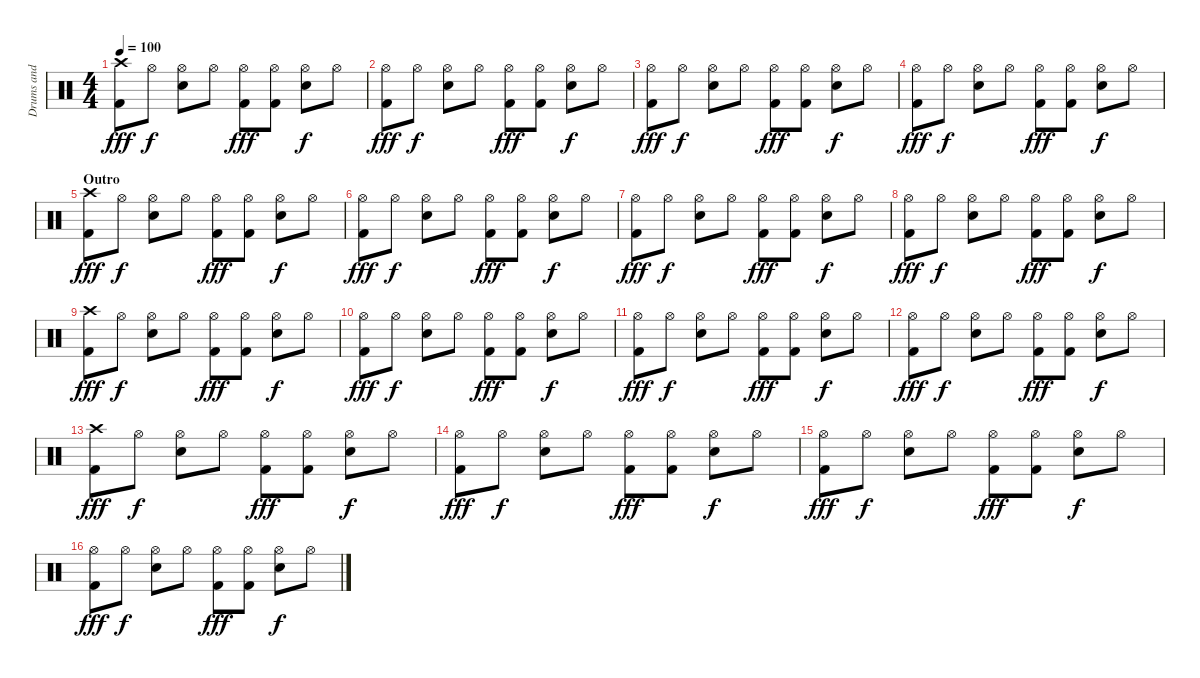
\track ("Drums and Percussion" "Drums and ") {instrument percussion}
\staff {score}
\articulation defaults
\ts (4 4)
\tempo 100
\clef neutral
\ks c
("Crash high (hit)" "Kick (hit) 2").8{dy fff} "Hi-Hat (open)".8{dy f} ("Hi-Hat (open)" "Snare (hit) 2").8 "Hi-Hat (open)".8 ("Hi-Hat (open)" "Kick (hit) 2").8{dy fff} ("Hi-Hat (open)" "Kick (hit) 2").8 ("Hi-Hat (open)" "Snare (hit) 2").8{dy f} "Hi-Hat (open)".8 |
("Hi-Hat (open)" "Kick (hit) 2").8{dy fff} "Hi-Hat (open)".8{dy f} ("Hi-Hat (open)" "Snare (hit) 2").8 "Hi-Hat (open)".8 ("Hi-Hat (open)" "Kick (hit) 2").8{dy fff} ("Hi-Hat (open)" "Kick (hit) 2").8 ("Hi-Hat (open)" "Snare (hit) 2").8{dy f} "Hi-Hat (open)".8 |
("Hi-Hat (open)" "Kick (hit) 2").8{dy fff} "Hi-Hat (open)".8{dy f} ("Hi-Hat (open)" "Snare (hit) 2").8 "Hi-Hat (open)".8 ("Hi-Hat (open)" "Kick (hit) 2").8{dy fff} ("Hi-Hat (open)" "Kick (hit) 2").8 ("Hi-Hat (open)" "Snare (hit) 2").8{dy f} "Hi-Hat (open)".8 |
("Hi-Hat (open)" "Kick (hit) 2").8{dy fff} "Hi-Hat (open)".8{dy f} ("Hi-Hat (open)" "Snare (hit) 2").8 "Hi-Hat (open)".8 ("Hi-Hat (open)" "Kick (hit) 2").8{dy fff} ("Hi-Hat (open)" "Kick (hit) 2").8 ("Hi-Hat (open)" "Snare (hit) 2").8{dy f} "Hi-Hat (open)".8 |
\section ("" "Outro")
("Crash high (hit)" "Kick (hit) 2").8{dy fff} "Hi-Hat (open)".8{dy f} ("Hi-Hat (open)" "Snare (hit) 2").8 "Hi-Hat (open)".8 ("Hi-Hat (open)" "Kick (hit) 2").8{dy fff} ("Hi-Hat (open)" "Kick (hit) 2").8 ("Hi-Hat (open)" "Snare (hit) 2").8{dy f} "Hi-Hat (open)".8 |
("Hi-Hat (open)" "Kick (hit) 2").8{dy fff} "Hi-Hat (open)".8{dy f} ("Hi-Hat (open)" "Snare (hit) 2").8 "Hi-Hat (open)".8 ("Hi-Hat (open)" "Kick (hit) 2").8{dy fff} ("Hi-Hat (open)" "Kick (hit) 2").8 ("Hi-Hat (open)" "Snare (hit) 2").8{dy f} "Hi-Hat (open)".8 |
("Hi-Hat (open)" "Kick (hit) 2").8{dy fff} "Hi-Hat (open)".8{dy f} ("Hi-Hat (open)" "Snare (hit) 2").8 "Hi-Hat (open)".8 ("Hi-Hat (open)" "Kick (hit) 2").8{dy fff} ("Hi-Hat (open)" "Kick (hit) 2").8 ("Hi-Hat (open)" "Snare (hit) 2").8{dy f} "Hi-Hat (open)".8 |
("Hi-Hat (open)" "Kick (hit) 2").8{dy fff} "Hi-Hat (open)".8{dy f} ("Hi-Hat (open)" "Snare (hit) 2").8 "Hi-Hat (open)".8 ("Hi-Hat (open)" "Kick (hit) 2").8{dy fff} ("Hi-Hat (open)" "Kick (hit) 2").8 ("Hi-Hat (open)" "Snare (hit) 2").8{dy f} "Hi-Hat (open)".8 |
("Crash high (hit)" "Kick (hit) 2").8{dy fff} "Hi-Hat (open)".8{dy f} ("Hi-Hat (open)" "Snare (hit) 2").8 "Hi-Hat (open)".8 ("Hi-Hat (open)" "Kick (hit) 2").8{dy fff} ("Hi-Hat (open)" "Kick (hit) 2").8 ("Hi-Hat (open)" "Snare (hit) 2").8{dy f} "Hi-Hat (open)".8 |
("Hi-Hat (open)" "Kick (hit) 2").8{dy fff} "Hi-Hat (open)".8{dy f} ("Hi-Hat (open)" "Snare (hit) 2").8 "Hi-Hat (open)".8 ("Hi-Hat (open)" "Kick (hit) 2").8{dy fff} ("Hi-Hat (open)" "Kick (hit) 2").8 ("Hi-Hat (open)" "Snare (hit) 2").8{dy f} "Hi-Hat (open)".8 |
("Hi-Hat (open)" "Kick (hit) 2").8{dy fff} "Hi-Hat (open)".8{dy f} ("Hi-Hat (open)" "Snare (hit) 2").8 "Hi-Hat (open)".8 ("Hi-Hat (open)" "Kick (hit) 2").8{dy fff} ("Hi-Hat (open)" "Kick (hit) 2").8 ("Hi-Hat (open)" "Snare (hit) 2").8{dy f} "Hi-Hat (open)".8 |
("Hi-Hat (open)" "Kick (hit) 2").8{dy fff} "Hi-Hat (open)".8{dy f} ("Hi-Hat (open)" "Snare (hit) 2").8 "Hi-Hat (open)".8 ("Hi-Hat (open)" "Kick (hit) 2").8{dy fff} ("Hi-Hat (open)" "Kick (hit) 2").8 ("Hi-Hat (open)" "Snare (hit) 2").8{dy f} "Hi-Hat (open)".8 |
("Crash high (hit)" "Kick (hit) 2").8{dy fff} "Hi-Hat (open)".8{dy f} ("Hi-Hat (open)" "Snare (hit) 2").8 "Hi-Hat (open)".8 ("Hi-Hat (open)" "Kick (hit) 2").8{dy fff} ("Hi-Hat (open)" "Kick (hit) 2").8 ("Hi-Hat (open)" "Snare (hit) 2").8{dy f} "Hi-Hat (open)".8 |
("Hi-Hat (open)" "Kick (hit) 2").8{dy fff} "Hi-Hat (open)".8{dy f} ("Hi-Hat (open)" "Snare (hit) 2").8 "Hi-Hat (open)".8 ("Hi-Hat (open)" "Kick (hit) 2").8{dy fff} ("Hi-Hat (open)" "Kick (hit) 2").8 ("Hi-Hat (open)" "Snare (hit) 2").8{dy f} "Hi-Hat (open)".8 |
("Hi-Hat (open)" "Kick (hit) 2").8{dy fff} "Hi-Hat (open)".8{dy f} ("Hi-Hat (open)" "Snare (hit) 2").8 "Hi-Hat (open)".8 ("Hi-Hat (open)" "Kick (hit) 2").8{dy fff} ("Hi-Hat (open)" "Kick (hit) 2").8 ("Hi-Hat (open)" "Snare (hit) 2").8{dy f} "Hi-Hat (open)".8 |
("Hi-Hat (open)" "Kick (hit) 2").8{dy fff} "Hi-Hat (open)".8{dy f} ("Hi-Hat (open)" "Snare (hit) 2").8 "Hi-Hat (open)".8 ("Hi-Hat (open)" "Kick (hit) 2").8{dy fff} ("Hi-Hat (open)" "Kick (hit) 2").8 ("Hi-Hat (open)" "Snare (hit) 2").8{dy f} "Hi-Hat (open)".8
